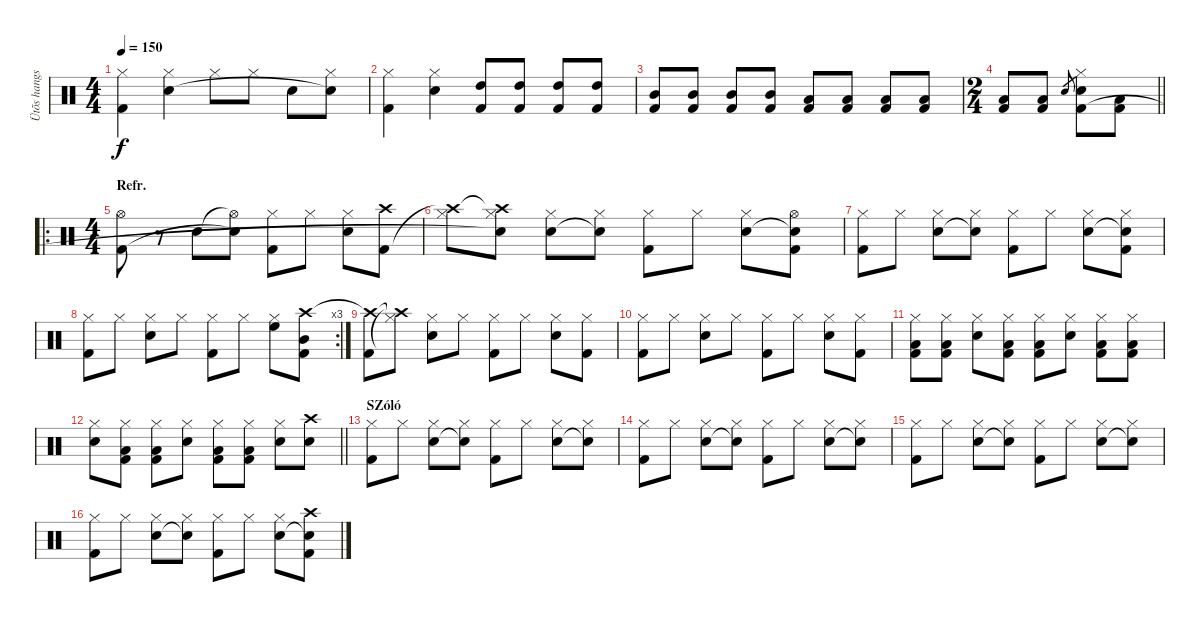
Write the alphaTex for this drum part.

\track ("Ütõs hangszer" "Ütõs hangs") {instrument percussion}
\staff {score}
\articulation defaults
\ts (4 4)
\tempo 150
\clef neutral
\ks c
("Hi-Hat (closed)" "Kick (hit) 2").4{dy f} ("Hi-Hat (closed)" "Snare (hit) 2").4 "Hi-Hat (closed)".8 "Hi-Hat (closed)".8 "Snare (hit) 2".8 ("Hi-Hat (closed)" "Snare (hit) 2"{t}).8 |
("Hi-Hat (closed)" "Kick (hit) 2").4 ("Hi-Hat (closed)" "Snare (hit) 2").4 ("High Tom (hit)" "Kick (hit) 2").8 ("High Tom (hit)" "Kick (hit) 2").8 ("High Tom (hit)" "Kick (hit) 2").8 ("High Tom (hit)" "Kick (hit) 2").8 |
("Mid Tom (hit)" "Kick (hit) 2").8 ("Mid Tom (hit)" "Kick (hit) 2").8 ("Mid Tom (hit)" "Kick (hit) 2").8 ("Mid Tom (hit)" "Kick (hit) 2").8 ("Low Tom (hit)" "Kick (hit) 2").8 ("Low Tom (hit)" "Kick (hit) 2").8 ("Low Tom (hit)" "Kick (hit) 2").8 ("Low Tom (hit)" "Kick (hit) 2").8 |
\ts (2 4)
\barLineRight lightlight
("Low Floor Tom (hit)" "Kick (hit) 2").8 ("Low Floor Tom (hit)" "Kick (hit) 2").8 "Snare (hit) 2".8{gr} ("Hi-Hat (closed)" "Snare (hit) 2" "Kick (hit) 2").8 ("Low Floor Tom (hit)" "Kick (hit) 2").8 |
\ro
\ts (4 4)
\section ("" "Refr.")
("Hi-Hat (open)" "Kick (hit) 2").8 r.8 "Snare (hit) 2".8 ("Hi-Hat (open)"{t} "Snare (hit) 2"{t}).8 ("Hi-Hat (closed)" "Kick (hit) 2").8 "Hi-Hat (closed)".8 ("Hi-Hat (closed)" "Snare (hit) 2").8 ("Crash high (hit)" "Kick (hit) 2").8 |
("Hi-Hat (closed)" "Crash high (hit)"{t}).8 ("Hi-Hat (closed)" "Crash high (hit)"{t} "Snare (hit) 2"{t}).8 ("Hi-Hat (closed)" "Snare (hit) 2").8 ("Hi-Hat (closed)" "Snare (hit) 2"{t}).8 ("Hi-Hat (closed)" "Kick (hit) 2").8 "Hi-Hat (closed)".8 ("Hi-Hat (closed)" "Snare (hit) 2").8 ("Hi-Hat (open)" "Snare (hit) 2"{t} "Kick (hit) 2").8 |
("Hi-Hat (closed)" "Kick (hit) 2").8 "Hi-Hat (closed)".8 ("Hi-Hat (closed)" "Snare (hit) 2").8 ("Hi-Hat (closed)" "Snare (hit) 2"{t}).8 ("Hi-Hat (closed)" "Kick (hit) 2").8 "Hi-Hat (closed)".8 ("Hi-Hat (closed)" "Snare (hit) 2").8 ("Hi-Hat (closed)" "Snare (hit) 2"{t} "Kick (hit) 2").8 |
\rc 3
("Hi-Hat (closed)" "Kick (hit) 2").8 "Hi-Hat (closed)".8 ("Hi-Hat (closed)" "Snare (hit) 2").8 "Hi-Hat (closed)".8 ("Hi-Hat (closed)" "Kick (hit) 2").8 "Hi-Hat (closed)".8 ("Hi-Hat (closed)" "High Floor Tom (hit)").8 ("Crash high (hit)" "Mid Tom (hit)" "Kick (hit) 2").8 |
("Crash high (hit)"{t} "Kick (hit) 2").8 ("Hi-Hat (closed)"{t} "Crash high (hit)"{t}).8 ("Hi-Hat (closed)" "Snare (hit) 2").8 "Hi-Hat (closed)".8 ("Hi-Hat (closed)" "Kick (hit) 2").8 "Hi-Hat (closed)".8 ("Hi-Hat (closed)" "Snare (hit) 2").8 ("Hi-Hat (closed)" "Kick (hit) 2").8 |
("Hi-Hat (closed)" "Kick (hit) 2").8 "Hi-Hat (closed)".8 ("Hi-Hat (closed)" "Snare (hit) 2").8 "Hi-Hat (closed)".8 ("Hi-Hat (closed)" "Kick (hit) 2").8 "Hi-Hat (closed)".8 ("Hi-Hat (closed)" "Snare (hit) 2").8 ("Hi-Hat (closed)" "Kick (hit) 2").8 |
("Hi-Hat (closed)" "Low Floor Tom (hit)" "Kick (hit) 2").8 ("Hi-Hat (closed)" "Low Floor Tom (hit)" "Kick (hit) 2").8 ("Hi-Hat (closed)" "Snare (hit) 2").8 ("Hi-Hat (closed)" "Low Floor Tom (hit)" "Kick (hit) 2").8 ("Hi-Hat (closed)" "Low Floor Tom (hit)" "Kick (hit) 2").8 ("Hi-Hat (closed)" "Snare (hit) 2").8 ("Hi-Hat (closed)" "Low Floor Tom (hit)" "Kick (hit) 2").8 ("Hi-Hat (closed)" "Low Floor Tom (hit)" "Kick (hit) 2").8 |
\barLineRight lightlight
("Hi-Hat (closed)" "Snare (hit) 2").8 ("Hi-Hat (closed)" "Low Floor Tom (hit)" "Kick (hit) 2").8 ("Hi-Hat (closed)" "Low Floor Tom (hit)" "Kick (hit) 2").8 ("Hi-Hat (closed)" "Snare (hit) 2").8 ("Hi-Hat (closed)" "Low Floor Tom (hit)" "Kick (hit) 2").8 ("Hi-Hat (closed)" "Low Floor Tom (hit)" "Kick (hit) 2").8 ("Hi-Hat (closed)" "Snare (hit) 2").8 ("Crash high (hit)" "Snare (hit) 2").8 |
\section ("" "SZóló")
("Hi-Hat (closed)" "Kick (hit) 2").8 "Hi-Hat (closed)".8 ("Hi-Hat (closed)" "Snare (hit) 2").8 ("Hi-Hat (closed)" "Snare (hit) 2"{t}).8 ("Hi-Hat (closed)" "Kick (hit) 2").8 "Hi-Hat (closed)".8 ("Hi-Hat (closed)" "Snare (hit) 2").8 ("Hi-Hat (closed)" "Snare (hit) 2"{t}).8 |
("Hi-Hat (closed)" "Kick (hit) 2").8 "Hi-Hat (closed)".8 ("Hi-Hat (closed)" "Snare (hit) 2").8 ("Hi-Hat (closed)" "Snare (hit) 2"{t}).8 ("Hi-Hat (closed)" "Kick (hit) 2").8 "Hi-Hat (closed)".8 ("Hi-Hat (closed)" "Snare (hit) 2").8 ("Hi-Hat (closed)" "Snare (hit) 2"{t}).8 |
("Hi-Hat (closed)" "Kick (hit) 2").8 "Hi-Hat (closed)".8 ("Hi-Hat (closed)" "Snare (hit) 2").8 ("Hi-Hat (closed)" "Snare (hit) 2"{t}).8 ("Hi-Hat (closed)" "Kick (hit) 2").8 "Hi-Hat (closed)".8 ("Hi-Hat (closed)" "Snare (hit) 2").8 ("Hi-Hat (closed)" "Snare (hit) 2"{t}).8 |
("Hi-Hat (closed)" "Kick (hit) 2").8 "Hi-Hat (closed)".8 ("Hi-Hat (closed)" "Snare (hit) 2").8 ("Hi-Hat (closed)" "Snare (hit) 2"{t}).8 ("Hi-Hat (closed)" "Kick (hit) 2").8 "Hi-Hat (closed)".8 ("Hi-Hat (closed)" "Snare (hit) 2").8 ("Crash high (hit)" "Snare (hit) 2"{t} "Kick (hit) 2").8
